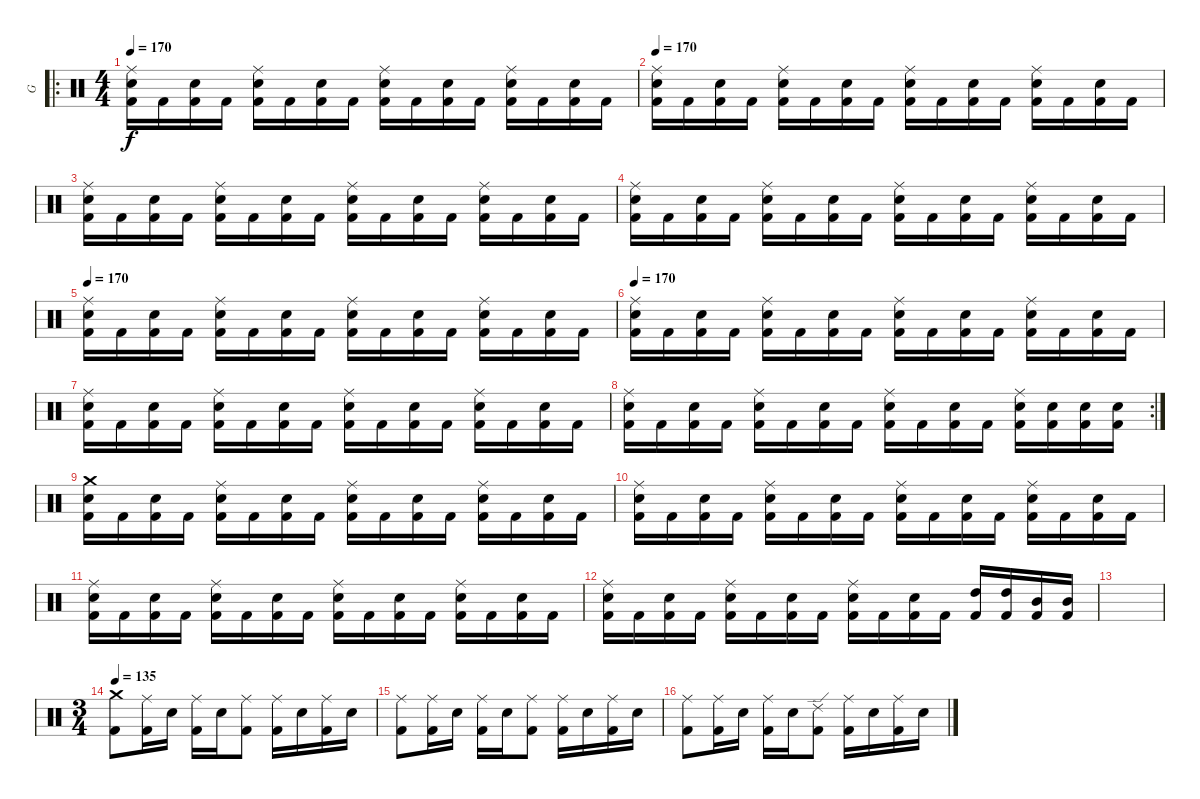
\track ("G" "G") {instrument percussion}
\staff {score}
\articulation defaults
\ro
\ts (4 4)
\tempo 170
\clef neutral
\ks c
("Ride (middle)" "Electric Snare (hit)" "Kick (hit) 2").16{dy f} "Kick (hit) 2".16 ("Electric Snare (hit)" "Kick (hit) 2").16 "Kick (hit) 2".16 ("Ride (middle)" "Electric Snare (hit)" "Kick (hit) 2").16 "Kick (hit) 2".16 ("Electric Snare (hit)" "Kick (hit) 2").16 "Kick (hit) 2".16 ("Ride (middle)" "Electric Snare (hit)" "Kick (hit) 2").16 "Kick (hit) 2".16 ("Electric Snare (hit)" "Kick (hit) 2").16 "Kick (hit) 2".16 ("Ride (middle)" "Electric Snare (hit)" "Kick (hit) 2").16 "Kick (hit) 2".16 ("Electric Snare (hit)" "Kick (hit) 2").16 "Kick (hit) 2".16 |
\tempo 170
("Ride (middle)" "Electric Snare (hit)" "Kick (hit) 2").16 "Kick (hit) 2".16 ("Electric Snare (hit)" "Kick (hit) 2").16 "Kick (hit) 2".16 ("Ride (middle)" "Electric Snare (hit)" "Kick (hit) 2").16 "Kick (hit) 2".16 ("Electric Snare (hit)" "Kick (hit) 2").16 "Kick (hit) 2".16 ("Ride (middle)" "Electric Snare (hit)" "Kick (hit) 2").16 "Kick (hit) 2".16 ("Electric Snare (hit)" "Kick (hit) 2").16 "Kick (hit) 2".16 ("Ride (middle)" "Electric Snare (hit)" "Kick (hit) 2").16 "Kick (hit) 2".16 ("Electric Snare (hit)" "Kick (hit) 2").16 "Kick (hit) 2".16 |
("Ride (middle)" "Electric Snare (hit)" "Kick (hit) 2").16 "Kick (hit) 2".16 ("Electric Snare (hit)" "Kick (hit) 2").16 "Kick (hit) 2".16 ("Ride (middle)" "Electric Snare (hit)" "Kick (hit) 2").16 "Kick (hit) 2".16 ("Electric Snare (hit)" "Kick (hit) 2").16 "Kick (hit) 2".16 ("Ride (middle)" "Electric Snare (hit)" "Kick (hit) 2").16 "Kick (hit) 2".16 ("Electric Snare (hit)" "Kick (hit) 2").16 "Kick (hit) 2".16 ("Ride (middle)" "Electric Snare (hit)" "Kick (hit) 2").16 "Kick (hit) 2".16 ("Electric Snare (hit)" "Kick (hit) 2").16 "Kick (hit) 2".16 |
("Ride (middle)" "Electric Snare (hit)" "Kick (hit) 2").16 "Kick (hit) 2".16 ("Electric Snare (hit)" "Kick (hit) 2").16 "Kick (hit) 2".16 ("Ride (middle)" "Electric Snare (hit)" "Kick (hit) 2").16 "Kick (hit) 2".16 ("Electric Snare (hit)" "Kick (hit) 2").16 "Kick (hit) 2".16 ("Ride (middle)" "Electric Snare (hit)" "Kick (hit) 2").16 "Kick (hit) 2".16 ("Electric Snare (hit)" "Kick (hit) 2").16 "Kick (hit) 2".16 ("Ride (middle)" "Electric Snare (hit)" "Kick (hit) 2").16 "Kick (hit) 2".16 ("Electric Snare (hit)" "Kick (hit) 2").16 "Kick (hit) 2".16 |
\tempo 170
("Ride (middle)" "Electric Snare (hit)" "Kick (hit) 2").16 "Kick (hit) 2".16 ("Electric Snare (hit)" "Kick (hit) 2").16 "Kick (hit) 2".16 ("Ride (middle)" "Electric Snare (hit)" "Kick (hit) 2").16 "Kick (hit) 2".16 ("Electric Snare (hit)" "Kick (hit) 2").16 "Kick (hit) 2".16 ("Ride (middle)" "Electric Snare (hit)" "Kick (hit) 2").16 "Kick (hit) 2".16 ("Electric Snare (hit)" "Kick (hit) 2").16 "Kick (hit) 2".16 ("Ride (middle)" "Electric Snare (hit)" "Kick (hit) 2").16 "Kick (hit) 2".16 ("Electric Snare (hit)" "Kick (hit) 2").16 "Kick (hit) 2".16 |
\tempo 170
("Ride (middle)" "Electric Snare (hit)" "Kick (hit) 2").16 "Kick (hit) 2".16 ("Electric Snare (hit)" "Kick (hit) 2").16 "Kick (hit) 2".16 ("Ride (middle)" "Electric Snare (hit)" "Kick (hit) 2").16 "Kick (hit) 2".16 ("Electric Snare (hit)" "Kick (hit) 2").16 "Kick (hit) 2".16 ("Ride (middle)" "Electric Snare (hit)" "Kick (hit) 2").16 "Kick (hit) 2".16 ("Electric Snare (hit)" "Kick (hit) 2").16 "Kick (hit) 2".16 ("Ride (middle)" "Electric Snare (hit)" "Kick (hit) 2").16 "Kick (hit) 2".16 ("Electric Snare (hit)" "Kick (hit) 2").16 "Kick (hit) 2".16 |
("Ride (middle)" "Electric Snare (hit)" "Kick (hit) 2").16 "Kick (hit) 2".16 ("Electric Snare (hit)" "Kick (hit) 2").16 "Kick (hit) 2".16 ("Ride (middle)" "Electric Snare (hit)" "Kick (hit) 2").16 "Kick (hit) 2".16 ("Electric Snare (hit)" "Kick (hit) 2").16 "Kick (hit) 2".16 ("Ride (middle)" "Electric Snare (hit)" "Kick (hit) 2").16 "Kick (hit) 2".16 ("Electric Snare (hit)" "Kick (hit) 2").16 "Kick (hit) 2".16 ("Ride (middle)" "Electric Snare (hit)" "Kick (hit) 2").16 "Kick (hit) 2".16 ("Electric Snare (hit)" "Kick (hit) 2").16 "Kick (hit) 2".16 |
\rc 2
("Ride (middle)" "Electric Snare (hit)" "Kick (hit) 2").16 "Kick (hit) 2".16 ("Electric Snare (hit)" "Kick (hit) 2").16 "Kick (hit) 2".16 ("Ride (middle)" "Electric Snare (hit)" "Kick (hit) 2").16 "Kick (hit) 2".16 ("Electric Snare (hit)" "Kick (hit) 2").16 "Kick (hit) 2".16 ("Ride (middle)" "Electric Snare (hit)" "Kick (hit) 2").16 "Kick (hit) 2".16 ("Electric Snare (hit)" "Kick (hit) 2").16 "Kick (hit) 2".16 ("Ride (middle)" "Electric Snare (hit)" "Kick (hit) 2").16 ("Electric Snare (hit)" "Kick (hit) 2").16 ("Electric Snare (hit)" "Kick (hit) 2").16 ("Electric Snare (hit)" "Kick (hit) 2").16 |
("Crash medium (hit)" "Electric Snare (hit)" "Kick (hit) 2").16 "Kick (hit) 2".16 ("Electric Snare (hit)" "Kick (hit) 2").16 "Kick (hit) 2".16 ("Ride (middle)" "Electric Snare (hit)" "Kick (hit) 2").16 "Kick (hit) 2".16 ("Electric Snare (hit)" "Kick (hit) 2").16 "Kick (hit) 2".16 ("Ride (middle)" "Electric Snare (hit)" "Kick (hit) 2").16 "Kick (hit) 2".16 ("Electric Snare (hit)" "Kick (hit) 2").16 "Kick (hit) 2".16 ("Ride (middle)" "Electric Snare (hit)" "Kick (hit) 2").16 "Kick (hit) 2".16 ("Electric Snare (hit)" "Kick (hit) 2").16 "Kick (hit) 2".16 |
("Ride (middle)" "Electric Snare (hit)" "Kick (hit) 2").16 "Kick (hit) 2".16 ("Electric Snare (hit)" "Kick (hit) 2").16 "Kick (hit) 2".16 ("Ride (middle)" "Electric Snare (hit)" "Kick (hit) 2").16 "Kick (hit) 2".16 ("Electric Snare (hit)" "Kick (hit) 2").16 "Kick (hit) 2".16 ("Ride (middle)" "Electric Snare (hit)" "Kick (hit) 2").16 "Kick (hit) 2".16 ("Electric Snare (hit)" "Kick (hit) 2").16 "Kick (hit) 2".16 ("Ride (middle)" "Electric Snare (hit)" "Kick (hit) 2").16 "Kick (hit) 2".16 ("Electric Snare (hit)" "Kick (hit) 2").16 "Kick (hit) 2".16 |
("Ride (middle)" "Electric Snare (hit)" "Kick (hit) 2").16 "Kick (hit) 2".16 ("Electric Snare (hit)" "Kick (hit) 2").16 "Kick (hit) 2".16 ("Ride (middle)" "Electric Snare (hit)" "Kick (hit) 2").16 "Kick (hit) 2".16 ("Electric Snare (hit)" "Kick (hit) 2").16 "Kick (hit) 2".16 ("Ride (middle)" "Electric Snare (hit)" "Kick (hit) 2").16 "Kick (hit) 2".16 ("Electric Snare (hit)" "Kick (hit) 2").16 "Kick (hit) 2".16 ("Ride (middle)" "Electric Snare (hit)" "Kick (hit) 2").16 "Kick (hit) 2".16 ("Electric Snare (hit)" "Kick (hit) 2").16 "Kick (hit) 2".16 |
("Ride (middle)" "Electric Snare (hit)" "Kick (hit) 2").16 "Kick (hit) 2".16 ("Electric Snare (hit)" "Kick (hit) 2").16 "Kick (hit) 2".16 ("Ride (middle)" "Electric Snare (hit)" "Kick (hit) 2").16 "Kick (hit) 2".16 ("Electric Snare (hit)" "Kick (hit) 2").16 "Kick (hit) 2".16 ("Ride (middle)" "Electric Snare (hit)" "Kick (hit) 2").16 "Kick (hit) 2".16 ("Electric Snare (hit)" "Kick (hit) 2").16 "Kick (hit) 2".16 ("High Tom (hit)" "Kick (hit) 2").16 ("High Tom (hit)" "Kick (hit) 2").16 ("Mid Tom (hit)" "Kick (hit) 2").16 ("Mid Tom (hit)" "Kick (hit) 2").16 |
|
\ts (3 4)
\tempo 140
\tempo 135
("Crash medium (hit)" "Kick (hit) 2").8 ("Ride (middle)" "Kick (hit) 2").16 "Electric Snare (hit)".16 ("Ride (middle)" "Kick (hit) 2").16 "Electric Snare (hit)".16 ("Ride (middle)" "Kick (hit) 2").8 ("Ride (middle)" "Kick (hit) 2").16 "Electric Snare (hit)".16 ("Ride (middle)" "Kick (hit) 2").16 "Electric Snare (hit)".16 |
("Ride (middle)" "Kick (hit) 2").8 ("Ride (middle)" "Kick (hit) 2").16 "Electric Snare (hit)".16 ("Ride (middle)" "Kick (hit) 2").16 "Electric Snare (hit)".16 ("Ride (middle)" "Kick (hit) 2").8 ("Ride (middle)" "Kick (hit) 2").16 "Electric Snare (hit)".16 ("Ride (middle)" "Kick (hit) 2").16 "Electric Snare (hit)".16 |
("Ride (middle)" "Kick (hit) 2").8 ("Ride (middle)" "Kick (hit) 2").16 "Electric Snare (hit)".16 ("Ride (middle)" "Kick (hit) 2").16 "Electric Snare (hit)".16 ("Ride (edge) 2" "Kick (hit) 2").8 ("Ride (middle)" "Kick (hit) 2").16 "Electric Snare (hit)".16 ("Ride (middle)" "Kick (hit) 2").16 "Electric Snare (hit)".16
